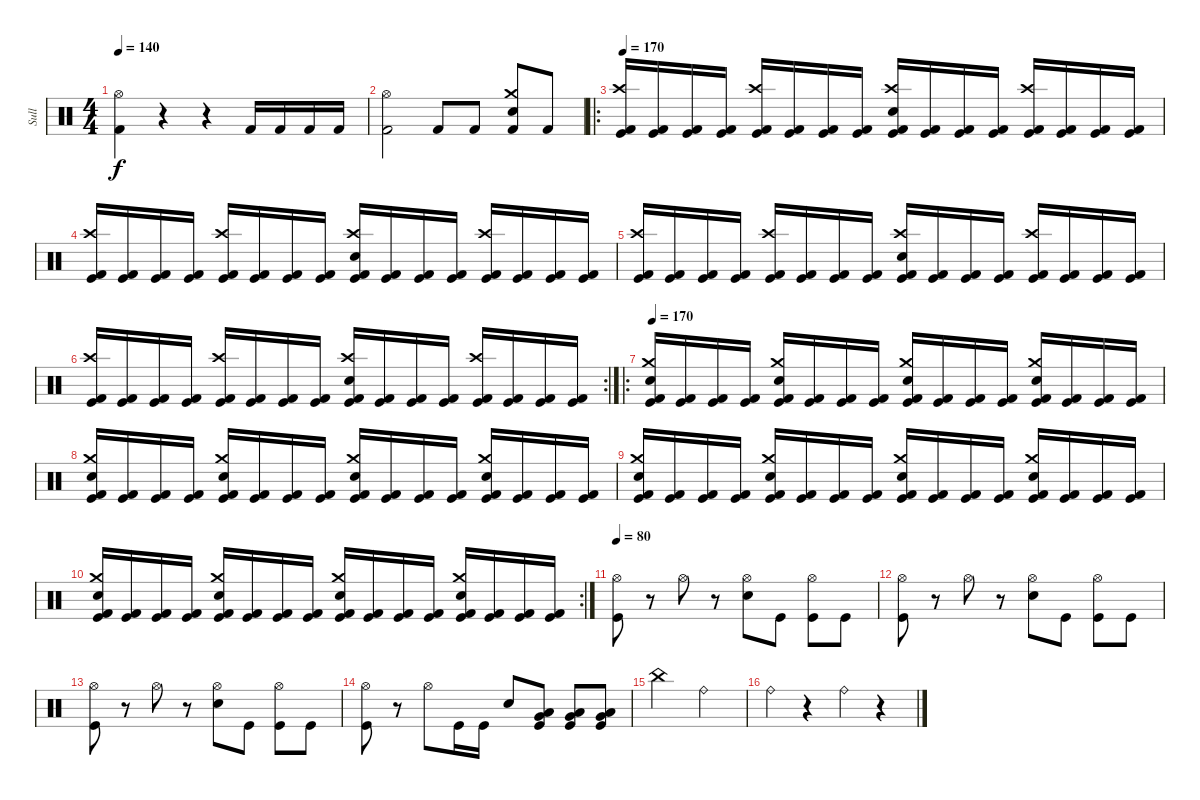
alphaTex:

\track ("Sull" "Sull") {instrument percussion}
\staff {score}
\articulation defaults
\ts (4 4)
\tempo 140
\clef neutral
\ks c
("Hi-Hat (open)" "Kick (hit) 2").4{dy f} r.4 r.4 "Kick (hit) 2".16 "Kick (hit) 2".16 "Kick (hit) 2".16 "Kick (hit) 2".16 |
("Hi-Hat (open)" "Kick (hit) 2").2 "Kick (hit) 2".8 "Kick (hit) 2".8 ("Crash medium (hit)" "Electric Snare (hit)" "Kick (hit) 2").8 "Kick (hit) 2".8 |
\ro
\tempo 170
("Crash high (hit)" "Kick (hit)" "Kick (hit) 2").16 ("Kick (hit)" "Kick (hit) 2").16 ("Kick (hit)" "Kick (hit) 2").16 ("Kick (hit)" "Kick (hit) 2").16 ("Crash high (hit)" "Kick (hit)" "Kick (hit) 2").16 ("Kick (hit)" "Kick (hit) 2").16 ("Kick (hit)" "Kick (hit) 2").16 ("Kick (hit)" "Kick (hit) 2").16 ("Crash high (hit)" "Electric Snare (hit)" "Kick (hit)" "Kick (hit) 2").16 ("Kick (hit)" "Kick (hit) 2").16 ("Kick (hit)" "Kick (hit) 2").16 ("Kick (hit)" "Kick (hit) 2").16 ("Crash high (hit)" "Kick (hit)" "Kick (hit) 2").16 ("Kick (hit)" "Kick (hit) 2").16 ("Kick (hit)" "Kick (hit) 2").16 ("Kick (hit)" "Kick (hit) 2").16 |
("Crash high (hit)" "Kick (hit)" "Kick (hit) 2").16 ("Kick (hit)" "Kick (hit) 2").16 ("Kick (hit)" "Kick (hit) 2").16 ("Kick (hit)" "Kick (hit) 2").16 ("Crash high (hit)" "Kick (hit)" "Kick (hit) 2").16 ("Kick (hit)" "Kick (hit) 2").16 ("Kick (hit)" "Kick (hit) 2").16 ("Kick (hit)" "Kick (hit) 2").16 ("Crash high (hit)" "Electric Snare (hit)" "Kick (hit)" "Kick (hit) 2").16 ("Kick (hit)" "Kick (hit) 2").16 ("Kick (hit)" "Kick (hit) 2").16 ("Kick (hit)" "Kick (hit) 2").16 ("Crash high (hit)" "Kick (hit)" "Kick (hit) 2").16 ("Kick (hit)" "Kick (hit) 2").16 ("Kick (hit)" "Kick (hit) 2").16 ("Kick (hit)" "Kick (hit) 2").16 |
("Crash high (hit)" "Kick (hit)" "Kick (hit) 2").16 ("Kick (hit)" "Kick (hit) 2").16 ("Kick (hit)" "Kick (hit) 2").16 ("Kick (hit)" "Kick (hit) 2").16 ("Crash high (hit)" "Kick (hit)" "Kick (hit) 2").16 ("Kick (hit)" "Kick (hit) 2").16 ("Kick (hit)" "Kick (hit) 2").16 ("Kick (hit)" "Kick (hit) 2").16 ("Crash high (hit)" "Electric Snare (hit)" "Kick (hit)" "Kick (hit) 2").16 ("Kick (hit)" "Kick (hit) 2").16 ("Kick (hit)" "Kick (hit) 2").16 ("Kick (hit)" "Kick (hit) 2").16 ("Crash high (hit)" "Kick (hit)" "Kick (hit) 2").16 ("Kick (hit)" "Kick (hit) 2").16 ("Kick (hit)" "Kick (hit) 2").16 ("Kick (hit)" "Kick (hit) 2").16 |
\rc 2
("Crash high (hit)" "Kick (hit)" "Kick (hit) 2").16 ("Kick (hit)" "Kick (hit) 2").16 ("Kick (hit)" "Kick (hit) 2").16 ("Kick (hit)" "Kick (hit) 2").16 ("Crash high (hit)" "Kick (hit)" "Kick (hit) 2").16 ("Kick (hit)" "Kick (hit) 2").16 ("Kick (hit)" "Kick (hit) 2").16 ("Kick (hit)" "Kick (hit) 2").16 ("Crash high (hit)" "Electric Snare (hit)" "Kick (hit)" "Kick (hit) 2").16 ("Kick (hit)" "Kick (hit) 2").16 ("Kick (hit)" "Kick (hit) 2").16 ("Kick (hit)" "Kick (hit) 2").16 ("Crash high (hit)" "Kick (hit)" "Kick (hit) 2").16 ("Kick (hit)" "Kick (hit) 2").16 ("Kick (hit)" "Kick (hit) 2").16 ("Kick (hit)" "Kick (hit) 2").16 |
\ro
\tempo 170
("Crash medium (hit)" "Electric Snare (hit)" "Kick (hit)" "Kick (hit) 2").16 ("Kick (hit)" "Kick (hit) 2").16 ("Kick (hit)" "Kick (hit) 2").16 ("Kick (hit)" "Kick (hit) 2").16 ("Crash medium (hit)" "Electric Snare (hit)" "Kick (hit)" "Kick (hit) 2").16 ("Kick (hit)" "Kick (hit) 2").16 ("Kick (hit)" "Kick (hit) 2").16 ("Kick (hit)" "Kick (hit) 2").16 ("Crash medium (hit)" "Electric Snare (hit)" "Kick (hit)" "Kick (hit) 2").16 ("Kick (hit)" "Kick (hit) 2").16 ("Kick (hit)" "Kick (hit) 2").16 ("Kick (hit)" "Kick (hit) 2").16 ("Crash medium (hit)" "Electric Snare (hit)" "Kick (hit)" "Kick (hit) 2").16 ("Kick (hit)" "Kick (hit) 2").16 ("Kick (hit)" "Kick (hit) 2").16 ("Kick (hit)" "Kick (hit) 2").16 |
("Crash medium (hit)" "Electric Snare (hit)" "Kick (hit)" "Kick (hit) 2").16 ("Kick (hit)" "Kick (hit) 2").16 ("Kick (hit)" "Kick (hit) 2").16 ("Kick (hit)" "Kick (hit) 2").16 ("Crash medium (hit)" "Electric Snare (hit)" "Kick (hit)" "Kick (hit) 2").16 ("Kick (hit)" "Kick (hit) 2").16 ("Kick (hit)" "Kick (hit) 2").16 ("Kick (hit)" "Kick (hit) 2").16 ("Crash medium (hit)" "Electric Snare (hit)" "Kick (hit)" "Kick (hit) 2").16 ("Kick (hit)" "Kick (hit) 2").16 ("Kick (hit)" "Kick (hit) 2").16 ("Kick (hit)" "Kick (hit) 2").16 ("Crash medium (hit)" "Electric Snare (hit)" "Kick (hit)" "Kick (hit) 2").16 ("Kick (hit)" "Kick (hit) 2").16 ("Kick (hit)" "Kick (hit) 2").16 ("Kick (hit)" "Kick (hit) 2").16 |
("Crash medium (hit)" "Electric Snare (hit)" "Kick (hit)" "Kick (hit) 2").16 ("Kick (hit)" "Kick (hit) 2").16 ("Kick (hit)" "Kick (hit) 2").16 ("Kick (hit)" "Kick (hit) 2").16 ("Crash medium (hit)" "Electric Snare (hit)" "Kick (hit)" "Kick (hit) 2").16 ("Kick (hit)" "Kick (hit) 2").16 ("Kick (hit)" "Kick (hit) 2").16 ("Kick (hit)" "Kick (hit) 2").16 ("Crash medium (hit)" "Electric Snare (hit)" "Kick (hit)" "Kick (hit) 2").16 ("Kick (hit)" "Kick (hit) 2").16 ("Kick (hit)" "Kick (hit) 2").16 ("Kick (hit)" "Kick (hit) 2").16 ("Crash medium (hit)" "Electric Snare (hit)" "Kick (hit)" "Kick (hit) 2").16 ("Kick (hit)" "Kick (hit) 2").16 ("Kick (hit)" "Kick (hit) 2").16 ("Kick (hit)" "Kick (hit) 2").16 |
\rc 2
("Crash medium (hit)" "Electric Snare (hit)" "Kick (hit)" "Kick (hit) 2").16 ("Kick (hit)" "Kick (hit) 2").16 ("Kick (hit)" "Kick (hit) 2").16 ("Kick (hit)" "Kick (hit) 2").16 ("Crash medium (hit)" "Electric Snare (hit)" "Kick (hit)" "Kick (hit) 2").16 ("Kick (hit)" "Kick (hit) 2").16 ("Kick (hit)" "Kick (hit) 2").16 ("Kick (hit)" "Kick (hit) 2").16 ("Crash medium (hit)" "Electric Snare (hit)" "Kick (hit)" "Kick (hit) 2").16 ("Kick (hit)" "Kick (hit) 2").16 ("Kick (hit)" "Kick (hit) 2").16 ("Kick (hit)" "Kick (hit) 2").16 ("Crash medium (hit)" "Electric Snare (hit)" "Kick (hit)" "Kick (hit) 2").16 ("Kick (hit)" "Kick (hit) 2").16 ("Kick (hit)" "Kick (hit) 2").16 ("Kick (hit)" "Kick (hit) 2").16 |
\tempo 80
("Hi-Hat (open)" "Kick (hit)").8 r.8 "Hi-Hat (open)".8 r.8 ("Hi-Hat (open)" "Electric Snare (hit)").8 "Kick (hit)".8 ("Hi-Hat (open)" "Kick (hit)").8 "Kick (hit)".8 |
("Hi-Hat (open)" "Kick (hit)").8 r.8 "Hi-Hat (open)".8 r.8 ("Hi-Hat (open)" "Electric Snare (hit)").8 "Kick (hit)".8 ("Hi-Hat (open)" "Kick (hit)").8 "Kick (hit)".8 |
("Hi-Hat (open)" "Kick (hit)").8 r.8 "Hi-Hat (open)".8 r.8 ("Hi-Hat (open)" "Electric Snare (hit)").8 "Kick (hit)".8 ("Hi-Hat (open)" "Kick (hit)").8 "Kick (hit)".8 |
("Hi-Hat (open)" "Kick (hit)").8 r.8 "Hi-Hat (open)".8 "Kick (hit)".16 "Kick (hit)".16 "Electric Snare (hit)".8 ("Very Low Tom (hit)" "Low Tom (hit)" "Kick (hit)").8 ("Very Low Tom (hit)" "Low Tom (hit)" "Kick (hit)").8 ("Very Low Tom (hit)" "Low Tom (hit)" "Kick (hit)").8 |
"China (hit)".2 "Ride (bell)".2 |
"Ride (bell)".4 r.4 "Ride (bell)".4 r.4
